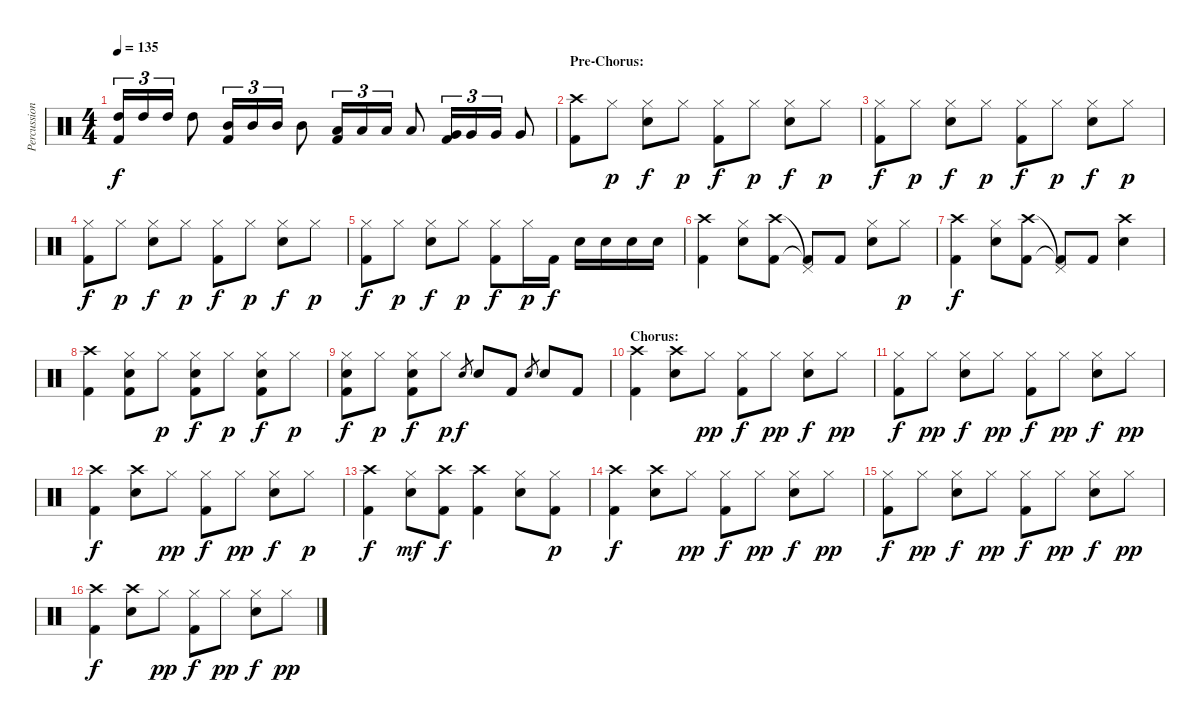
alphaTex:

\track ("Percussion" "Percussion") {instrument percussion}
\staff {score}
\articulation defaults
\ts (4 4)
\tempo 135
\clef neutral
\ks c
("High Tom (hit)" "Kick (hit) 2").16{tu (3 2) dy f} "High Tom (hit)".16{tu (3 2)} "High Tom (hit)".16{tu (3 2)} "High Tom (hit)".8 ("Mid Tom (hit)" "Kick (hit) 2").16{tu (3 2)} "Mid Tom (hit)".16{tu (3 2)} "Mid Tom (hit)".16{tu (3 2)} "Mid Tom (hit)".8 ("Low Tom (hit)" "Kick (hit) 2").16{tu (3 2)} "Low Tom (hit)".16{tu (3 2)} "Low Tom (hit)".16{tu (3 2)} "Low Tom (hit)".8 ("Very Low Tom (hit)" "Kick (hit) 2").16{tu (3 2)} "Very Low Tom (hit)".16{tu (3 2)} "Very Low Tom (hit)".16{tu (3 2)} "Very Low Tom (hit)".8 |
\section ("" "Pre-Chorus:")
("Crash high (hit)" "Kick (hit) 2").8 "Hi-Hat (closed)".8{dy p} ("Hi-Hat (closed)" "Snare (hit) 2").8{dy f} "Hi-Hat (closed)".8{dy p} ("Hi-Hat (closed)" "Kick (hit) 2").8{dy f} "Hi-Hat (closed)".8{dy p} ("Hi-Hat (closed)" "Snare (hit) 2").8{dy f} "Hi-Hat (closed)".8{dy p} |
("Hi-Hat (closed)" "Kick (hit) 2").8{dy f} "Hi-Hat (closed)".8{dy p} ("Hi-Hat (closed)" "Snare (hit) 2").8{dy f} "Hi-Hat (closed)".8{dy p} ("Hi-Hat (closed)" "Kick (hit) 2").8{dy f} "Hi-Hat (closed)".8{dy p} ("Hi-Hat (closed)" "Snare (hit) 2").8{dy f} "Hi-Hat (closed)".8{dy p} |
("Hi-Hat (closed)" "Kick (hit) 2").8{dy f} "Hi-Hat (closed)".8{dy p} ("Hi-Hat (closed)" "Snare (hit) 2").8{dy f} "Hi-Hat (closed)".8{dy p} ("Hi-Hat (closed)" "Kick (hit) 2").8{dy f} "Hi-Hat (closed)".8{dy p} ("Hi-Hat (closed)" "Snare (hit) 2").8{dy f} "Hi-Hat (closed)".8{dy p} |
("Hi-Hat (closed)" "Kick (hit) 2").8{dy f} "Hi-Hat (closed)".8{dy p} ("Hi-Hat (closed)" "Snare (hit) 2").8{dy f} "Hi-Hat (closed)".8{dy p} ("Hi-Hat (closed)" "Kick (hit) 2").8{dy f} "Hi-Hat (closed)".16{dy p} "Kick (hit) 2".16{dy f} "Snare (hit) 2".16 "Snare (hit) 2".16 "Snare (hit) 2".16 "Snare (hit) 2".16 |
("Crash high (hit)" "Kick (hit) 2").4 ("Hi-Hat (closed)" "Snare (hit) 2").8 ("Crash high (hit)" "Kick (hit) 2").8 ("Pedal Hi-Hat (hit)"{t} "Kick (hit) 2"{t}).8 "Kick (hit) 2".8 ("Hi-Hat (closed)" "Snare (hit) 2").8 "Hi-Hat (closed)".8{dy p} |
("Crash high (hit)" "Kick (hit) 2").4{dy f} ("Hi-Hat (closed)" "Snare (hit) 2").8 ("Crash high (hit)" "Kick (hit) 2").8 ("Pedal Hi-Hat (hit)"{t} "Kick (hit) 2"{t}).8 "Kick (hit) 2".8 ("Crash high (hit)" "Snare (hit) 2").4 |
("Crash high (hit)" "Kick (hit) 2").4 ("Hi-Hat (closed)" "Snare (hit) 2" "Kick (hit) 2").8 "Hi-Hat (closed)".8{dy p} ("Hi-Hat (closed)" "Snare (hit) 2" "Kick (hit) 2").8{dy f} "Hi-Hat (closed)".8{dy p} ("Hi-Hat (closed)" "Snare (hit) 2" "Kick (hit) 2").8{dy f} "Hi-Hat (closed)".8{dy p} |
("Hi-Hat (closed)" "Snare (hit) 2" "Kick (hit) 2").8{dy f} "Hi-Hat (closed)".8{dy p} ("Hi-Hat (closed)" "Snare (hit) 2" "Kick (hit) 2").8{dy f} "Hi-Hat (closed)".8{dy p} "Snare (hit) 2".8{gr dy f} "Snare (hit) 2".8 "Kick (hit) 2".8 "Snare (hit) 2".8{gr} "Snare (hit) 2".8 "Kick (hit) 2".8 |
\section ("" "Chorus:")
("Crash high (hit)" "Kick (hit) 2").4 ("Crash high (hit)" "Snare (hit) 2").8 "Hi-Hat (closed)".8{dy pp} ("Hi-Hat (closed)" "Kick (hit) 2").8{dy f} "Hi-Hat (closed)".8{dy pp} ("Hi-Hat (closed)" "Snare (hit) 2").8{dy f} "Hi-Hat (closed)".8{dy pp} |
("Hi-Hat (closed)" "Kick (hit) 2").8{dy f} "Hi-Hat (closed)".8{dy pp} ("Hi-Hat (closed)" "Snare (hit) 2").8{dy f} "Hi-Hat (closed)".8{dy pp} ("Hi-Hat (closed)" "Kick (hit) 2").8{dy f} "Hi-Hat (closed)".8{dy pp} ("Hi-Hat (closed)" "Snare (hit) 2").8{dy f} "Hi-Hat (closed)".8{dy pp} |
("Crash high (hit)" "Kick (hit) 2").4{dy f} ("Crash high (hit)" "Snare (hit) 2").8 "Hi-Hat (closed)".8{dy pp} ("Hi-Hat (closed)" "Kick (hit) 2").8{dy f} "Hi-Hat (closed)".8{dy pp} ("Hi-Hat (closed)" "Snare (hit) 2").8{dy f} "Hi-Hat (closed)".8{dy p} |
("Crash high (hit)" "Kick (hit) 2").4{dy f} ("Hi-Hat (closed)" "Snare (hit) 2").8{dy mf} ("Crash high (hit)" "Kick (hit) 2").8{dy f} ("Crash high (hit)" "Kick (hit) 2").4 ("Hi-Hat (closed)" "Snare (hit) 2").8 ("Hi-Hat (closed)" "Kick (hit) 2").8{dy p} |
("Crash high (hit)" "Kick (hit) 2").4{dy f} ("Crash high (hit)" "Snare (hit) 2").8 "Hi-Hat (closed)".8{dy pp} ("Hi-Hat (closed)" "Kick (hit) 2").8{dy f} "Hi-Hat (closed)".8{dy pp} ("Hi-Hat (closed)" "Snare (hit) 2").8{dy f} "Hi-Hat (closed)".8{dy pp} |
("Hi-Hat (closed)" "Kick (hit) 2").8{dy f} "Hi-Hat (closed)".8{dy pp} ("Hi-Hat (closed)" "Snare (hit) 2").8{dy f} "Hi-Hat (closed)".8{dy pp} ("Hi-Hat (closed)" "Kick (hit) 2").8{dy f} "Hi-Hat (closed)".8{dy pp} ("Hi-Hat (closed)" "Snare (hit) 2").8{dy f} "Hi-Hat (closed)".8{dy pp} |
("Crash high (hit)" "Kick (hit) 2").4{dy f} ("Crash high (hit)" "Snare (hit) 2").8 "Hi-Hat (closed)".8{dy pp} ("Hi-Hat (closed)" "Kick (hit) 2").8{dy f} "Hi-Hat (closed)".8{dy pp} ("Hi-Hat (closed)" "Snare (hit) 2").8{dy f} "Hi-Hat (closed)".8{dy pp}
